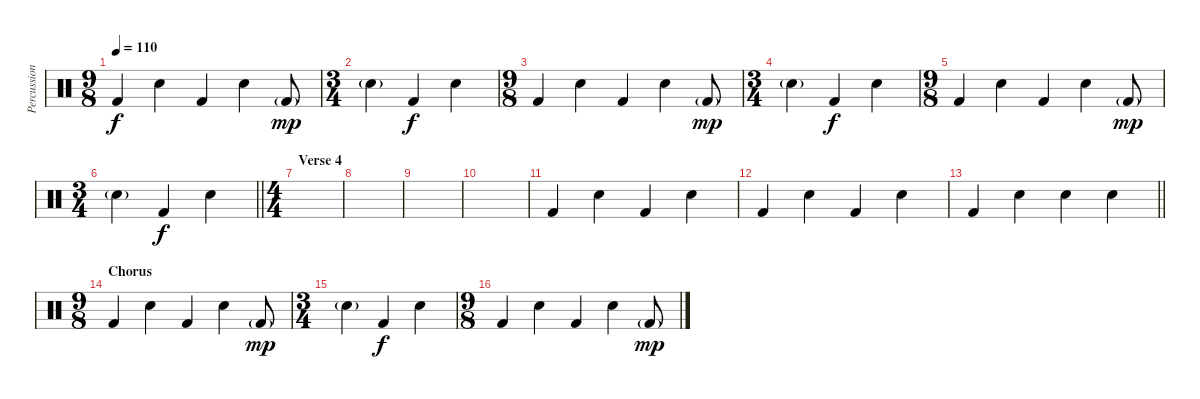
\track ("Percussion" "Percussion") {instrument percussion}
\staff {score}
\articulation defaults
\ts (9 8)
\tempo 110
\clef neutral
\ks c "Kick (hit) 2".4{dy f} "Snare (hit) 2".4 "Kick (hit) 2".4 "Snare (hit) 2".4 "Kick (hit) 2"{g}.8{dy mp}
|
\ts (3 4)
"Snare (hit) 2"{g}.4 "Kick (hit) 2".4{dy f} "Snare (hit) 2".4 |
\ts (9 8)
"Kick (hit) 2".4 "Snare (hit) 2".4 "Kick (hit) 2".4 "Snare (hit) 2".4 "Kick (hit) 2"{g}.8{dy mp} |
\ts (3 4)
"Snare (hit) 2"{g}.4 "Kick (hit) 2".4{dy f} "Snare (hit) 2".4 |
\ts (9 8)
"Kick (hit) 2".4 "Snare (hit) 2".4 "Kick (hit) 2".4 "Snare (hit) 2".4 "Kick (hit) 2"{g}.8{dy mp} |
\ts (3 4)
\barLineRight lightlight "Snare (hit) 2"{g}.4 "Kick (hit) 2".4{dy f} "Snare (hit) 2".4
|
\ts (4 4)
\section ("" "Verse 4")
|
|
|
|
"Kick (hit) 2".4 "Snare (hit) 2".4 "Kick (hit) 2".4 "Snare (hit) 2".4 |
"Kick (hit) 2".4 "Snare (hit) 2".4 "Kick (hit) 2".4 "Snare (hit) 2".4 |
\barLineRight lightlight "Kick (hit) 2".4 "Snare (hit) 2".4 "Snare (hit) 2".4 "Snare (hit) 2".4
|
\ts (9 8)
\section ("" "Chorus")
"Kick (hit) 2".4 "Snare (hit) 2".4 "Kick (hit) 2".4 "Snare (hit) 2".4 "Kick (hit) 2"{g}.8{dy mp} |
\ts (3 4)
"Snare (hit) 2"{g}.4 "Kick (hit) 2".4{dy f} "Snare (hit) 2".4 |
\ts (9 8)
"Kick (hit) 2".4 "Snare (hit) 2".4 "Kick (hit) 2".4 "Snare (hit) 2".4 "Kick (hit) 2"{g}.8{dy mp}
